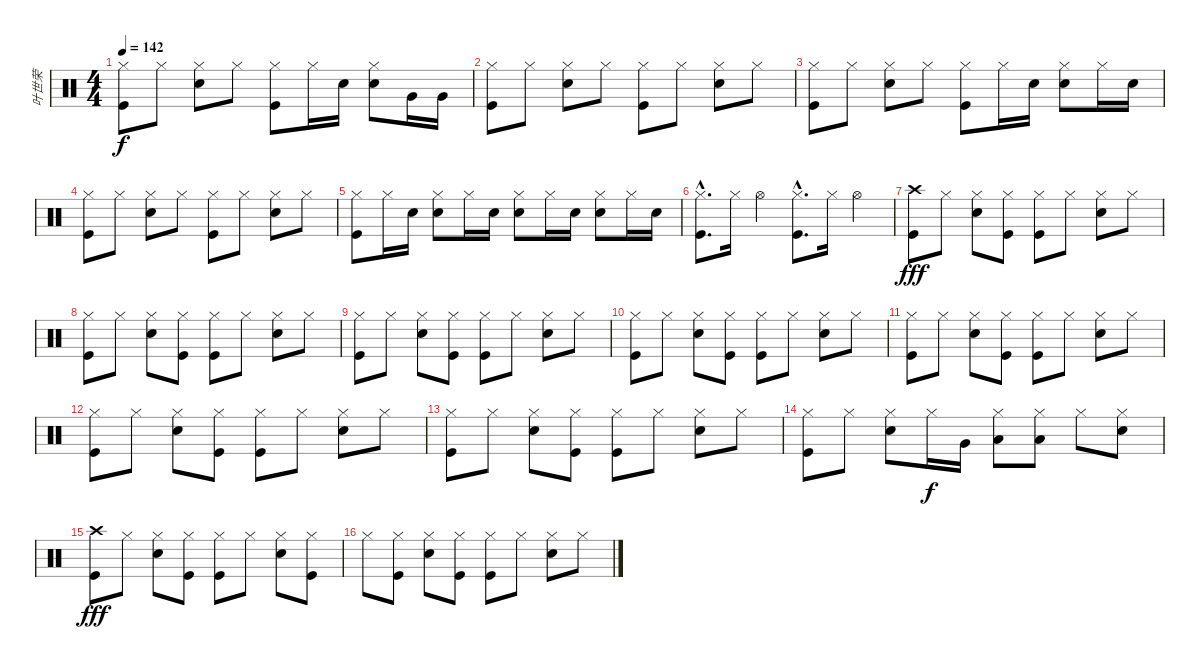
\track ("叶世荣" "叶世荣") {instrument percussion}
\staff {score}
\articulation defaults
\ts (4 4)
\tempo 142
\clef neutral
\ks c
("Hi-Hat (closed)" "Kick (hit)").8{dy f} "Hi-Hat (closed)".8 ("Hi-Hat (closed)" "Snare (hit) 2").8 "Hi-Hat (closed)".8 ("Hi-Hat (closed)" "Kick (hit)").8 "Hi-Hat (closed)".16 "Snare (hit) 2".16 ("Hi-Hat (closed)" "Snare (hit) 2").8 "Very Low Tom (hit)".16 "Very Low Tom (hit)".16 |
("Hi-Hat (closed)" "Kick (hit)").8 "Hi-Hat (closed)".8 ("Hi-Hat (closed)" "Snare (hit) 2").8 "Hi-Hat (closed)".8 ("Hi-Hat (closed)" "Kick (hit)").8 "Hi-Hat (closed)".8 ("Hi-Hat (closed)" "Snare (hit) 2").8 "Hi-Hat (closed)".8 |
("Hi-Hat (closed)" "Kick (hit)").8 "Hi-Hat (closed)".8 ("Hi-Hat (closed)" "Snare (hit) 2").8 "Hi-Hat (closed)".8 ("Hi-Hat (closed)" "Kick (hit)").8 "Hi-Hat (closed)".16 "Snare (hit) 2".16 ("Hi-Hat (closed)" "Snare (hit) 2").8 "Hi-Hat (closed)".16 "Snare (hit) 2".16 |
("Hi-Hat (closed)" "Kick (hit)").8 "Hi-Hat (closed)".8 ("Hi-Hat (closed)" "Snare (hit) 2").8 "Hi-Hat (closed)".8 ("Hi-Hat (closed)" "Kick (hit)").8 "Hi-Hat (closed)".8 ("Hi-Hat (closed)" "Snare (hit) 2").8 "Hi-Hat (closed)".8 |
("Hi-Hat (closed)" "Kick (hit)").8 "Hi-Hat (closed)".16 "Snare (hit) 2".16 ("Hi-Hat (closed)" "Snare (hit) 2").8 "Hi-Hat (closed)".16 "Snare (hit) 2".16 ("Hi-Hat (closed)" "Snare (hit) 2").8 "Hi-Hat (closed)".16 "Snare (hit) 2".16 ("Hi-Hat (closed)" "Snare (hit) 2").8 "Hi-Hat (closed)".16 "Snare (hit) 2".16 |
("Hi-Hat (closed)"{hac} "Kick (hit)"{hac}).8{d} "Hi-Hat (closed)".16 "Hi-Hat (open)".4 ("Hi-Hat (closed)"{hac} "Kick (hit)"{hac}).8{d} "Hi-Hat (closed)".16 "Hi-Hat (open)".4 |
("Crash high (hit)" "Kick (hit)").8{dy fff} "Hi-Hat (closed)".8 ("Hi-Hat (closed)" "Snare (hit) 2").8 ("Hi-Hat (closed)" "Kick (hit)").8 ("Hi-Hat (closed)" "Kick (hit)").8 "Hi-Hat (closed)".8 ("Hi-Hat (closed)" "Snare (hit) 2").8 "Hi-Hat (closed)".8 |
("Hi-Hat (closed)" "Kick (hit)").8 "Hi-Hat (closed)".8 ("Hi-Hat (closed)" "Snare (hit) 2").8 ("Hi-Hat (closed)" "Kick (hit)").8 ("Hi-Hat (closed)" "Kick (hit)").8 "Hi-Hat (closed)".8 ("Hi-Hat (closed)" "Snare (hit) 2").8 "Hi-Hat (closed)".8 |
("Hi-Hat (closed)" "Kick (hit)").8 "Hi-Hat (closed)".8 ("Hi-Hat (closed)" "Snare (hit) 2").8 ("Hi-Hat (closed)" "Kick (hit)").8 ("Hi-Hat (closed)" "Kick (hit)").8 "Hi-Hat (closed)".8 ("Hi-Hat (closed)" "Snare (hit) 2").8 "Hi-Hat (closed)".8 |
("Hi-Hat (closed)" "Kick (hit)").8 "Hi-Hat (closed)".8 ("Hi-Hat (closed)" "Snare (hit) 2").8 ("Hi-Hat (closed)" "Kick (hit)").8 ("Hi-Hat (closed)" "Kick (hit)").8 "Hi-Hat (closed)".8 ("Hi-Hat (closed)" "Snare (hit) 2").8 "Hi-Hat (closed)".8 |
("Hi-Hat (closed)" "Kick (hit)").8 "Hi-Hat (closed)".8 ("Hi-Hat (closed)" "Snare (hit) 2").8 ("Hi-Hat (closed)" "Kick (hit)").8 ("Hi-Hat (closed)" "Kick (hit)").8 "Hi-Hat (closed)".8 ("Hi-Hat (closed)" "Snare (hit) 2").8 "Hi-Hat (closed)".8 |
("Hi-Hat (closed)" "Kick (hit)").8 "Hi-Hat (closed)".8 ("Hi-Hat (closed)" "Snare (hit) 2").8 ("Hi-Hat (closed)" "Kick (hit)").8 ("Hi-Hat (closed)" "Kick (hit)").8 "Hi-Hat (closed)".8 ("Hi-Hat (closed)" "Snare (hit) 2").8 "Hi-Hat (closed)".8 |
("Hi-Hat (closed)" "Kick (hit)").8 "Hi-Hat (closed)".8 ("Hi-Hat (closed)" "Snare (hit) 2").8 ("Hi-Hat (closed)" "Kick (hit)").8 ("Hi-Hat (closed)" "Kick (hit)").8 "Hi-Hat (closed)".8 ("Hi-Hat (closed)" "Snare (hit) 2").8 "Hi-Hat (closed)".8 |
("Hi-Hat (closed)" "Kick (hit)").8 "Hi-Hat (closed)".8 ("Hi-Hat (closed)" "Snare (hit) 2").8 "Hi-Hat (closed)".16{dy f} "Very Low Tom (hit)".16 ("Hi-Hat (closed)" "Low Tom (hit)").8 ("Hi-Hat (closed)" "Low Tom (hit)").8 "Hi-Hat (closed)".8 ("Hi-Hat (closed)" "Snare (hit) 2").8 |
("Crash high (hit)" "Kick (hit)").8{dy fff} "Hi-Hat (closed)".8 ("Hi-Hat (closed)" "Snare (hit) 2").8 ("Hi-Hat (closed)" "Kick (hit)").8 ("Hi-Hat (closed)" "Kick (hit)").8 "Hi-Hat (closed)".8 ("Hi-Hat (closed)" "Snare (hit) 2").8 ("Hi-Hat (closed)" "Kick (hit)").8 |
"Hi-Hat (closed)".8 ("Hi-Hat (closed)" "Kick (hit)").8 ("Hi-Hat (closed)" "Snare (hit) 2").8 ("Hi-Hat (closed)" "Kick (hit)").8 ("Hi-Hat (closed)" "Kick (hit)").8 "Hi-Hat (closed)".8 ("Hi-Hat (closed)" "Snare (hit) 2").8 "Hi-Hat (closed)".8
